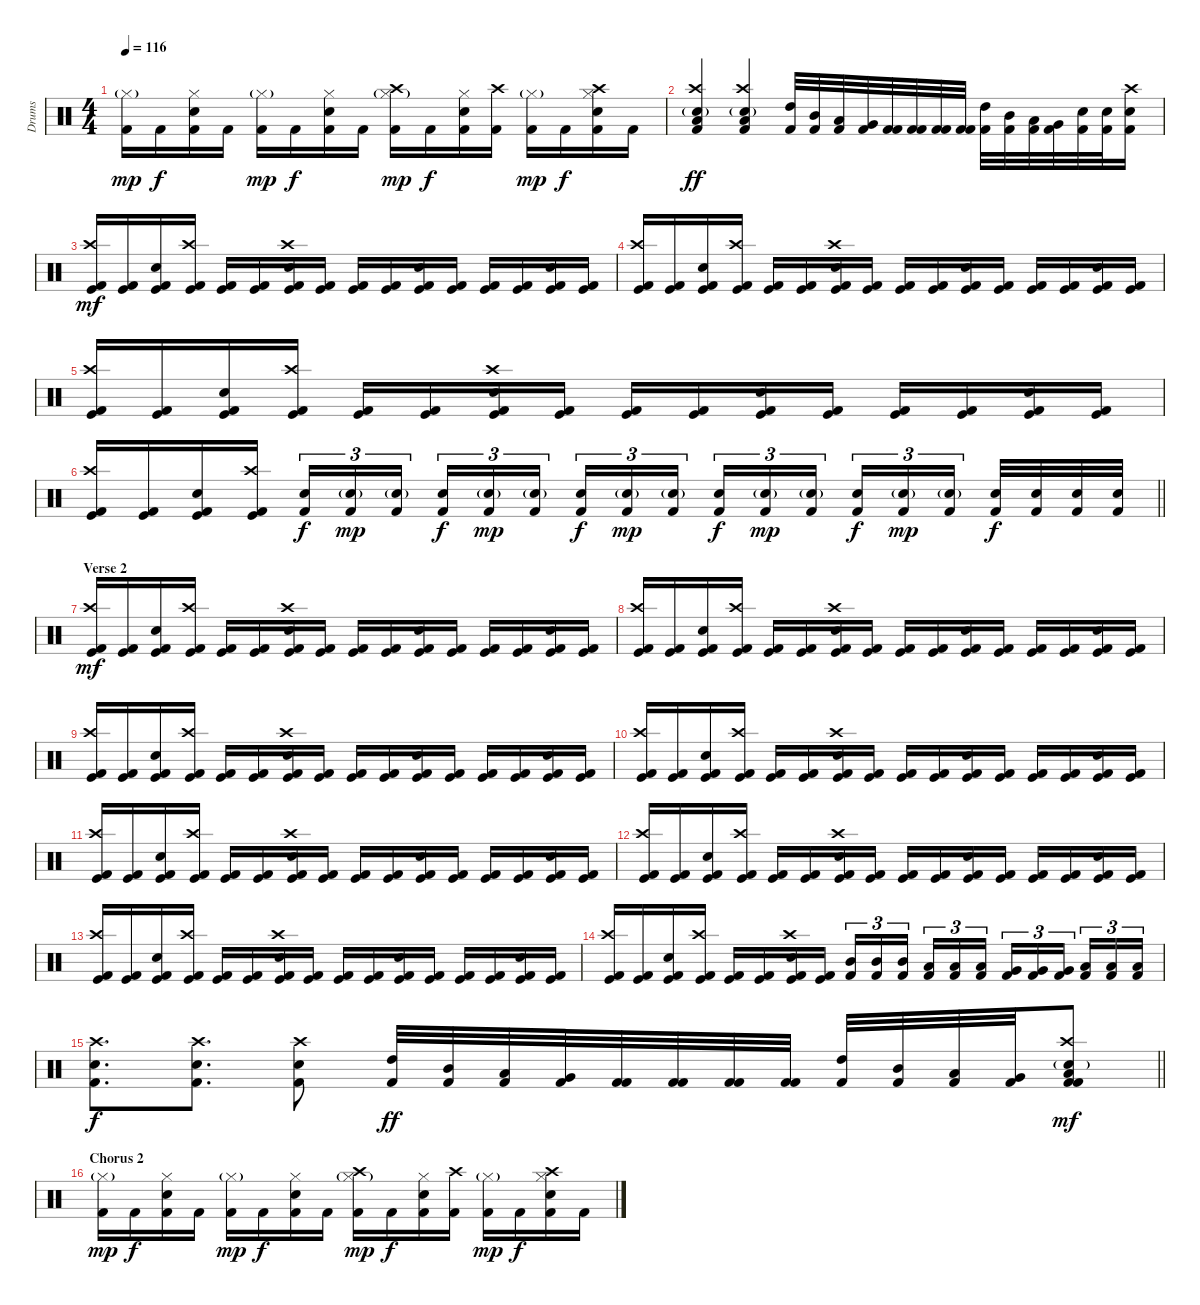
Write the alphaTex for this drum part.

\track ("Drums" "Drums") {instrument percussion}
\staff {score}
\articulation defaults
\ts (4 4)
\tempo 116
\clef neutral
\ks c
("Kick (hit) 2" "Hi-Hat (closed)"{g}).16{dy mp} "Kick (hit) 2".16{dy f} ("Kick (hit) 2" "Electric Snare (hit)" "Hi-Hat (closed)").16 "Kick (hit) 2".16 ("Kick (hit) 2" "Hi-Hat (closed)"{g}).16{dy mp} "Kick (hit) 2".16{dy f} ("Kick (hit) 2" "Electric Snare (hit)" "Hi-Hat (closed)").16 "Kick (hit) 2".16 ("Kick (hit) 2" "Hi-Hat (closed)"{g} "Crash high (hit)").16{dy mp} "Kick (hit) 2".16{dy f} ("Kick (hit) 2" "Electric Snare (hit)" "Hi-Hat (closed)").16 ("Kick (hit) 2" "Crash high (hit)").16 ("Kick (hit) 2" "Hi-Hat (closed)"{g}).16{dy mp} "Kick (hit) 2".16{dy f} ("Kick (hit) 2" "Electric Snare (hit)" "Hi-Hat (closed)" "Crash high (hit)").16 "Kick (hit) 2".16 |
("Kick (hit) 2" "Electric Snare (hit)"{g} "Low Tom (hit)" "Crash high (hit)").4{dy ff} ("Kick (hit) 2" "Electric Snare (hit)"{g} "Low Tom (hit)" "Crash high (hit)").4 ("Kick (hit) 2" "High Tom (hit)").32 ("Kick (hit) 2" "Mid Tom (hit)").32 ("Kick (hit) 2" "Low Tom (hit)").32 ("Kick (hit) 2" "Very Low Tom (hit)").32 ("Kick (hit) 2" "Kick (hit) 2").32 ("Kick (hit) 2" "Kick (hit) 2").32 ("Kick (hit) 2" "Kick (hit) 2").32 ("Kick (hit) 2" "Kick (hit) 2").32 ("Kick (hit) 2" "High Tom (hit)").32 ("Kick (hit) 2" "Mid Tom (hit)").32 ("Kick (hit) 2" "Low Tom (hit)").32 ("Kick (hit) 2" "Very Low Tom (hit)").32 ("Electric Snare (hit)" "Kick (hit) 2").32 ("Electric Snare (hit)" "Kick (hit) 2").32 ("Kick (hit) 2" "Electric Snare (hit)" "Crash high (hit)").16 |
("Kick (hit) 2" "Kick (hit)" "Crash high (hit)").16{dy mf} ("Kick (hit) 2" "Kick (hit)").16 ("Kick (hit) 2" "Electric Snare (hit)" "Kick (hit)").16 ("Kick (hit) 2" "Kick (hit)" "Crash high (hit)").16 ("Kick (hit) 2" "Kick (hit)").16 ("Kick (hit) 2" "Kick (hit)").16 ("Kick (hit) 2" "Electric Snare (hit)" "Kick (hit)" "Crash high (hit)").16 ("Kick (hit) 2" "Kick (hit)").16 ("Kick (hit) 2" "Kick (hit)").16 ("Kick (hit) 2" "Kick (hit)").16 ("Kick (hit) 2" "Electric Snare (hit)" "Kick (hit)").16 ("Kick (hit) 2" "Kick (hit)").16 ("Kick (hit) 2" "Kick (hit)").16 ("Kick (hit) 2" "Kick (hit)").16 ("Kick (hit) 2" "Electric Snare (hit)" "Kick (hit)").16 ("Kick (hit) 2" "Kick (hit)").16 |
("Kick (hit) 2" "Kick (hit)" "Crash high (hit)").16 ("Kick (hit) 2" "Kick (hit)").16 ("Kick (hit) 2" "Electric Snare (hit)" "Kick (hit)").16 ("Kick (hit) 2" "Kick (hit)" "Crash high (hit)").16 ("Kick (hit) 2" "Kick (hit)").16 ("Kick (hit) 2" "Kick (hit)").16 ("Kick (hit) 2" "Electric Snare (hit)" "Kick (hit)" "Crash high (hit)").16 ("Kick (hit) 2" "Kick (hit)").16 ("Kick (hit) 2" "Kick (hit)").16 ("Kick (hit) 2" "Kick (hit)").16 ("Kick (hit) 2" "Electric Snare (hit)" "Kick (hit)").16 ("Kick (hit) 2" "Kick (hit)").16 ("Kick (hit) 2" "Kick (hit)").16 ("Kick (hit) 2" "Kick (hit)").16 ("Kick (hit) 2" "Electric Snare (hit)" "Kick (hit)").16 ("Kick (hit) 2" "Kick (hit)").16 |
("Kick (hit) 2" "Kick (hit)" "Crash high (hit)").16 ("Kick (hit) 2" "Kick (hit)").16 ("Kick (hit) 2" "Electric Snare (hit)" "Kick (hit)").16 ("Kick (hit) 2" "Kick (hit)" "Crash high (hit)").16 ("Kick (hit) 2" "Kick (hit)").16 ("Kick (hit) 2" "Kick (hit)").16 ("Kick (hit) 2" "Electric Snare (hit)" "Kick (hit)" "Crash high (hit)").16 ("Kick (hit) 2" "Kick (hit)").16 ("Kick (hit) 2" "Kick (hit)").16 ("Kick (hit) 2" "Kick (hit)").16 ("Kick (hit) 2" "Electric Snare (hit)" "Kick (hit)").16 ("Kick (hit) 2" "Kick (hit)").16 ("Kick (hit) 2" "Kick (hit)").16 ("Kick (hit) 2" "Kick (hit)").16 ("Kick (hit) 2" "Electric Snare (hit)" "Kick (hit)").16 ("Kick (hit) 2" "Kick (hit)").16 |
\barLineRight lightlight
("Kick (hit) 2" "Kick (hit)" "Crash high (hit)").16 ("Kick (hit) 2" "Kick (hit)").16 ("Kick (hit) 2" "Electric Snare (hit)" "Kick (hit)").16 ("Kick (hit) 2" "Kick (hit)" "Crash high (hit)").16 ("Electric Snare (hit)" "Kick (hit) 2").16{tu (3 2) dy f} ("Kick (hit) 2" "Electric Snare (hit)"{g}).16{tu (3 2) dy mp} ("Kick (hit) 2" "Electric Snare (hit)"{g}).16{tu (3 2) beam splitsecondary} ("Electric Snare (hit)" "Kick (hit) 2").16{tu (3 2) dy f} ("Kick (hit) 2" "Electric Snare (hit)"{g}).16{tu (3 2) dy mp} ("Kick (hit) 2" "Electric Snare (hit)"{g}).16{tu (3 2)} ("Electric Snare (hit)" "Kick (hit) 2").16{tu (3 2) dy f} ("Kick (hit) 2" "Electric Snare (hit)"{g}).16{tu (3 2) dy mp} ("Kick (hit) 2" "Electric Snare (hit)"{g}).16{tu (3 2) beam splitsecondary} ("Electric Snare (hit)" "Kick (hit) 2").16{tu (3 2) dy f} ("Kick (hit) 2" "Electric Snare (hit)"{g}).16{tu (3 2) dy mp} ("Kick (hit) 2" "Electric Snare (hit)"{g}).16{tu (3 2)} ("Electric Snare (hit)" "Kick (hit) 2").16{tu (3 2) dy f} ("Kick (hit) 2" "Electric Snare (hit)"{g}).16{tu (3 2) dy mp} ("Kick (hit) 2" "Electric Snare (hit)"{g}).16{tu (3 2) beam splitsecondary} ("Electric Snare (hit)" "Kick (hit) 2").32{dy f} ("Electric Snare (hit)" "Kick (hit) 2").32 ("Electric Snare (hit)" "Kick (hit) 2").32 ("Electric Snare (hit)" "Kick (hit) 2").32 |
\section ("" "Verse 2")
("Kick (hit) 2" "Kick (hit)" "Crash high (hit)").16{dy mf} ("Kick (hit) 2" "Kick (hit)").16 ("Kick (hit) 2" "Electric Snare (hit)" "Kick (hit)").16 ("Kick (hit) 2" "Kick (hit)" "Crash high (hit)").16 ("Kick (hit) 2" "Kick (hit)").16 ("Kick (hit) 2" "Kick (hit)").16 ("Kick (hit) 2" "Electric Snare (hit)" "Kick (hit)" "Crash high (hit)").16 ("Kick (hit) 2" "Kick (hit)").16 ("Kick (hit) 2" "Kick (hit)").16 ("Kick (hit) 2" "Kick (hit)").16 ("Kick (hit) 2" "Electric Snare (hit)" "Kick (hit)").16 ("Kick (hit) 2" "Kick (hit)").16 ("Kick (hit) 2" "Kick (hit)").16 ("Kick (hit) 2" "Kick (hit)").16 ("Kick (hit) 2" "Electric Snare (hit)" "Kick (hit)").16 ("Kick (hit) 2" "Kick (hit)").16 |
("Kick (hit) 2" "Kick (hit)" "Crash high (hit)").16 ("Kick (hit) 2" "Kick (hit)").16 ("Kick (hit) 2" "Electric Snare (hit)" "Kick (hit)").16 ("Kick (hit) 2" "Kick (hit)" "Crash high (hit)").16 ("Kick (hit) 2" "Kick (hit)").16 ("Kick (hit) 2" "Kick (hit)").16 ("Kick (hit) 2" "Electric Snare (hit)" "Kick (hit)" "Crash high (hit)").16 ("Kick (hit) 2" "Kick (hit)").16 ("Kick (hit) 2" "Kick (hit)").16 ("Kick (hit) 2" "Kick (hit)").16 ("Kick (hit) 2" "Electric Snare (hit)" "Kick (hit)").16 ("Kick (hit) 2" "Kick (hit)").16 ("Kick (hit) 2" "Kick (hit)").16 ("Kick (hit) 2" "Kick (hit)").16 ("Kick (hit) 2" "Electric Snare (hit)" "Kick (hit)").16 ("Kick (hit) 2" "Kick (hit)").16 |
("Kick (hit) 2" "Kick (hit)" "Crash high (hit)").16 ("Kick (hit) 2" "Kick (hit)").16 ("Kick (hit) 2" "Electric Snare (hit)" "Kick (hit)").16 ("Kick (hit) 2" "Kick (hit)" "Crash high (hit)").16 ("Kick (hit) 2" "Kick (hit)").16 ("Kick (hit) 2" "Kick (hit)").16 ("Kick (hit) 2" "Electric Snare (hit)" "Kick (hit)" "Crash high (hit)").16 ("Kick (hit) 2" "Kick (hit)").16 ("Kick (hit) 2" "Kick (hit)").16 ("Kick (hit) 2" "Kick (hit)").16 ("Kick (hit) 2" "Electric Snare (hit)" "Kick (hit)").16 ("Kick (hit) 2" "Kick (hit)").16 ("Kick (hit) 2" "Kick (hit)").16 ("Kick (hit) 2" "Kick (hit)").16 ("Kick (hit) 2" "Electric Snare (hit)" "Kick (hit)").16 ("Kick (hit) 2" "Kick (hit)").16 |
("Kick (hit) 2" "Kick (hit)" "Crash high (hit)").16 ("Kick (hit) 2" "Kick (hit)").16 ("Kick (hit) 2" "Electric Snare (hit)" "Kick (hit)").16 ("Kick (hit) 2" "Kick (hit)" "Crash high (hit)").16 ("Kick (hit) 2" "Kick (hit)").16 ("Kick (hit) 2" "Kick (hit)").16 ("Kick (hit) 2" "Electric Snare (hit)" "Kick (hit)" "Crash high (hit)").16 ("Kick (hit) 2" "Kick (hit)").16 ("Kick (hit) 2" "Kick (hit)").16 ("Kick (hit) 2" "Kick (hit)").16 ("Kick (hit) 2" "Electric Snare (hit)" "Kick (hit)").16 ("Kick (hit) 2" "Kick (hit)").16 ("Kick (hit) 2" "Kick (hit)").16 ("Kick (hit) 2" "Kick (hit)").16 ("Kick (hit) 2" "Electric Snare (hit)" "Kick (hit)").16 ("Kick (hit) 2" "Kick (hit)").16 |
("Kick (hit) 2" "Kick (hit)" "Crash high (hit)").16 ("Kick (hit) 2" "Kick (hit)").16 ("Kick (hit) 2" "Electric Snare (hit)" "Kick (hit)").16 ("Kick (hit) 2" "Kick (hit)" "Crash high (hit)").16 ("Kick (hit) 2" "Kick (hit)").16 ("Kick (hit) 2" "Kick (hit)").16 ("Kick (hit) 2" "Electric Snare (hit)" "Kick (hit)" "Crash high (hit)").16 ("Kick (hit) 2" "Kick (hit)").16 ("Kick (hit) 2" "Kick (hit)").16 ("Kick (hit) 2" "Kick (hit)").16 ("Kick (hit) 2" "Electric Snare (hit)" "Kick (hit)").16 ("Kick (hit) 2" "Kick (hit)").16 ("Kick (hit) 2" "Kick (hit)").16 ("Kick (hit) 2" "Kick (hit)").16 ("Kick (hit) 2" "Electric Snare (hit)" "Kick (hit)").16 ("Kick (hit) 2" "Kick (hit)").16 |
("Kick (hit) 2" "Kick (hit)" "Crash high (hit)").16 ("Kick (hit) 2" "Kick (hit)").16 ("Kick (hit) 2" "Electric Snare (hit)" "Kick (hit)").16 ("Kick (hit) 2" "Kick (hit)" "Crash high (hit)").16 ("Kick (hit) 2" "Kick (hit)").16 ("Kick (hit) 2" "Kick (hit)").16 ("Kick (hit) 2" "Electric Snare (hit)" "Kick (hit)" "Crash high (hit)").16 ("Kick (hit) 2" "Kick (hit)").16 ("Kick (hit) 2" "Kick (hit)").16 ("Kick (hit) 2" "Kick (hit)").16 ("Kick (hit) 2" "Electric Snare (hit)" "Kick (hit)").16 ("Kick (hit) 2" "Kick (hit)").16 ("Kick (hit) 2" "Kick (hit)").16 ("Kick (hit) 2" "Kick (hit)").16 ("Kick (hit) 2" "Electric Snare (hit)" "Kick (hit)").16 ("Kick (hit) 2" "Kick (hit)").16 |
("Kick (hit) 2" "Kick (hit)" "Crash high (hit)").16 ("Kick (hit) 2" "Kick (hit)").16 ("Kick (hit) 2" "Electric Snare (hit)" "Kick (hit)").16 ("Kick (hit) 2" "Kick (hit)" "Crash high (hit)").16 ("Kick (hit) 2" "Kick (hit)").16 ("Kick (hit) 2" "Kick (hit)").16 ("Kick (hit) 2" "Electric Snare (hit)" "Kick (hit)" "Crash high (hit)").16 ("Kick (hit) 2" "Kick (hit)").16 ("Kick (hit) 2" "Kick (hit)").16 ("Kick (hit) 2" "Kick (hit)").16 ("Kick (hit) 2" "Electric Snare (hit)" "Kick (hit)").16 ("Kick (hit) 2" "Kick (hit)").16 ("Kick (hit) 2" "Kick (hit)").16 ("Kick (hit) 2" "Kick (hit)").16 ("Kick (hit) 2" "Electric Snare (hit)" "Kick (hit)").16 ("Kick (hit) 2" "Kick (hit)").16 |
("Kick (hit) 2" "Kick (hit)" "Crash high (hit)").16 ("Kick (hit) 2" "Kick (hit)").16 ("Kick (hit) 2" "Electric Snare (hit)" "Kick (hit)").16 ("Kick (hit) 2" "Kick (hit)" "Crash high (hit)").16 ("Kick (hit) 2" "Kick (hit)").16 ("Kick (hit) 2" "Kick (hit)").16 ("Kick (hit) 2" "Electric Snare (hit)" "Kick (hit)" "Crash high (hit)").16 ("Kick (hit) 2" "Kick (hit)").16 ("Kick (hit) 2" "Mid Tom (hit)").16{tu (3 2)} ("Kick (hit) 2" "Mid Tom (hit)").16{tu (3 2)} ("Kick (hit) 2" "Mid Tom (hit)").16{tu (3 2) beam splitsecondary} ("Kick (hit) 2" "Low Tom (hit)").16{tu (3 2)} ("Kick (hit) 2" "Low Tom (hit)").16{tu (3 2)} ("Kick (hit) 2" "Low Tom (hit)").16{tu (3 2)} ("Kick (hit) 2" "Very Low Tom (hit)").16{tu (3 2)} ("Kick (hit) 2" "Very Low Tom (hit)").16{tu (3 2)} ("Kick (hit) 2" "Very Low Tom (hit)").16{tu (3 2) beam splitsecondary} ("Kick (hit) 2" "Low Floor Tom (hit)").16{tu (3 2)} ("Kick (hit) 2" "Low Floor Tom (hit)").16{tu (3 2)} ("Kick (hit) 2" "Low Floor Tom (hit)").16{tu (3 2)} |
\barLineRight lightlight
("Kick (hit) 2" "Electric Snare (hit)" "Crash high (hit)").8{d dy f} ("Kick (hit) 2" "Electric Snare (hit)" "Crash high (hit)").8{d} ("Kick (hit) 2" "Electric Snare (hit)" "Crash high (hit)").8 ("Kick (hit) 2" "High Tom (hit)").32{dy ff} ("Kick (hit) 2" "Mid Tom (hit)").32 ("Kick (hit) 2" "Low Tom (hit)").32 ("Kick (hit) 2" "Very Low Tom (hit)").32 ("Kick (hit) 2" "Kick (hit) 2").32 ("Kick (hit) 2" "Kick (hit) 2").32 ("Kick (hit) 2" "Kick (hit) 2").32 ("Kick (hit) 2" "Kick (hit) 2").32 ("Kick (hit) 2" "High Tom (hit)").32 ("Kick (hit) 2" "Mid Tom (hit)").32 ("Kick (hit) 2" "Low Tom (hit)").32 ("Kick (hit) 2" "Very Low Tom (hit)").32 ("Kick (hit) 2" "Kick (hit) 2" "Crash high (hit)" "Low Floor Tom (hit)" "Electric Snare (hit)"{g}).8{dy mf} |
\section ("" "Chorus 2")
("Kick (hit) 2" "Hi-Hat (closed)"{g}).16{dy mp} "Kick (hit) 2".16{dy f} ("Kick (hit) 2" "Electric Snare (hit)" "Hi-Hat (closed)").16 "Kick (hit) 2".16 ("Kick (hit) 2" "Hi-Hat (closed)"{g}).16{dy mp} "Kick (hit) 2".16{dy f} ("Kick (hit) 2" "Electric Snare (hit)" "Hi-Hat (closed)").16 "Kick (hit) 2".16 ("Kick (hit) 2" "Hi-Hat (closed)"{g} "Crash high (hit)").16{dy mp} "Kick (hit) 2".16{dy f} ("Kick (hit) 2" "Electric Snare (hit)" "Hi-Hat (closed)").16 ("Kick (hit) 2" "Crash high (hit)").16 ("Kick (hit) 2" "Hi-Hat (closed)"{g}).16{dy mp} "Kick (hit) 2".16{dy f} ("Kick (hit) 2" "Electric Snare (hit)" "Hi-Hat (closed)" "Crash high (hit)").16 "Kick (hit) 2".16
